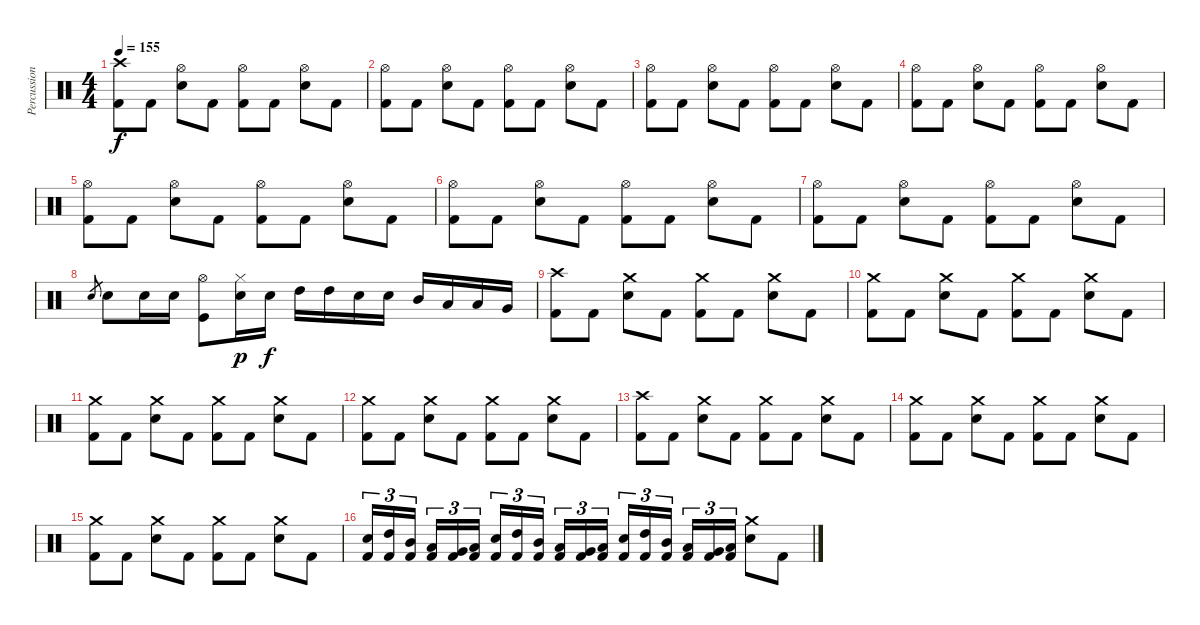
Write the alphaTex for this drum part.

\track ("Percussion" "Percussion") {instrument percussion}
\staff {score}
\articulation defaults
\ts (4 4)
\tempo 155
\clef neutral
\ks c
("Crash high (hit)" "Kick (hit) 2").8{dy f} "Kick (hit) 2".8 ("Hi-Hat (open)" "Electric Snare (hit)").8 "Kick (hit) 2".8 ("Hi-Hat (open)" "Kick (hit) 2").8 "Kick (hit) 2".8 ("Hi-Hat (open)" "Electric Snare (hit)").8 "Kick (hit) 2".8 |
("Hi-Hat (open)" "Kick (hit) 2").8 "Kick (hit) 2".8 ("Hi-Hat (open)" "Electric Snare (hit)").8 "Kick (hit) 2".8 ("Hi-Hat (open)" "Kick (hit) 2").8 "Kick (hit) 2".8 ("Hi-Hat (open)" "Electric Snare (hit)").8 "Kick (hit) 2".8 |
("Hi-Hat (open)" "Kick (hit) 2").8 "Kick (hit) 2".8 ("Hi-Hat (open)" "Electric Snare (hit)").8 "Kick (hit) 2".8 ("Hi-Hat (open)" "Kick (hit) 2").8 "Kick (hit) 2".8 ("Hi-Hat (open)" "Electric Snare (hit)").8 "Kick (hit) 2".8 |
("Hi-Hat (open)" "Kick (hit) 2").8 "Kick (hit) 2".8 ("Hi-Hat (open)" "Electric Snare (hit)").8 "Kick (hit) 2".8 ("Hi-Hat (open)" "Kick (hit) 2").8 "Kick (hit) 2".8 ("Hi-Hat (open)" "Electric Snare (hit)").8 "Kick (hit) 2".8 |
("Hi-Hat (open)" "Kick (hit) 2").8 "Kick (hit) 2".8 ("Hi-Hat (open)" "Electric Snare (hit)").8 "Kick (hit) 2".8 ("Hi-Hat (open)" "Kick (hit) 2").8 "Kick (hit) 2".8 ("Hi-Hat (open)" "Electric Snare (hit)").8 "Kick (hit) 2".8 |
("Hi-Hat (open)" "Kick (hit) 2").8 "Kick (hit) 2".8 ("Hi-Hat (open)" "Electric Snare (hit)").8 "Kick (hit) 2".8 ("Hi-Hat (open)" "Kick (hit) 2").8 "Kick (hit) 2".8 ("Hi-Hat (open)" "Electric Snare (hit)").8 "Kick (hit) 2".8 |
("Hi-Hat (open)" "Kick (hit) 2").8 "Kick (hit) 2".8 ("Hi-Hat (open)" "Electric Snare (hit)").8 "Kick (hit) 2".8 ("Hi-Hat (open)" "Kick (hit) 2").8 "Kick (hit) 2".8 ("Hi-Hat (open)" "Electric Snare (hit)").8 "Kick (hit) 2".8 |
"Electric Snare (hit)".8{gr} "Electric Snare (hit)".8 "Electric Snare (hit)".16 "Electric Snare (hit)".16 ("Hi-Hat (open)" "Kick (hit)").8 ("Hi-Hat (closed)" "Electric Snare (hit)").16{dy p} "Electric Snare (hit)".16{dy f} "High Tom (hit)".16 "High Tom (hit)".16 "Electric Snare (hit)".16 "Electric Snare (hit)".16 "Mid Tom (hit)".16 "Low Tom (hit)".16 "Low Tom (hit)".16 "Very Low Tom (hit)".16 |
("Crash high (hit)" "Kick (hit) 2").8 "Kick (hit) 2".8 ("Crash medium (hit)" "Electric Snare (hit)").8 "Kick (hit) 2".8 ("Crash medium (hit)" "Kick (hit) 2").8 "Kick (hit) 2".8 ("Crash medium (hit)" "Electric Snare (hit)").8 "Kick (hit) 2".8 |
("Crash medium (hit)" "Kick (hit) 2").8 "Kick (hit) 2".8 ("Crash medium (hit)" "Electric Snare (hit)").8 "Kick (hit) 2".8 ("Crash medium (hit)" "Kick (hit) 2").8 "Kick (hit) 2".8 ("Crash medium (hit)" "Electric Snare (hit)").8 "Kick (hit) 2".8 |
("Crash medium (hit)" "Kick (hit) 2").8 "Kick (hit) 2".8 ("Crash medium (hit)" "Electric Snare (hit)").8 "Kick (hit) 2".8 ("Crash medium (hit)" "Kick (hit) 2").8 "Kick (hit) 2".8 ("Crash medium (hit)" "Electric Snare (hit)").8 "Kick (hit) 2".8 |
("Crash medium (hit)" "Kick (hit) 2").8 "Kick (hit) 2".8 ("Crash medium (hit)" "Electric Snare (hit)").8 "Kick (hit) 2".8 ("Crash medium (hit)" "Kick (hit) 2").8 "Kick (hit) 2".8 ("Crash medium (hit)" "Electric Snare (hit)").8 "Kick (hit) 2".8 |
("Crash high (hit)" "Kick (hit) 2").8 "Kick (hit) 2".8 ("Crash medium (hit)" "Electric Snare (hit)").8 "Kick (hit) 2".8 ("Crash medium (hit)" "Kick (hit) 2").8 "Kick (hit) 2".8 ("Crash medium (hit)" "Electric Snare (hit)").8 "Kick (hit) 2".8 |
("Crash medium (hit)" "Kick (hit) 2").8 "Kick (hit) 2".8 ("Crash medium (hit)" "Electric Snare (hit)").8 "Kick (hit) 2".8 ("Crash medium (hit)" "Kick (hit) 2").8 "Kick (hit) 2".8 ("Crash medium (hit)" "Electric Snare (hit)").8 "Kick (hit) 2".8 |
("Crash medium (hit)" "Kick (hit) 2").8 "Kick (hit) 2".8 ("Crash medium (hit)" "Electric Snare (hit)").8 "Kick (hit) 2".8 ("Crash medium (hit)" "Kick (hit) 2").8 "Kick (hit) 2".8 ("Crash medium (hit)" "Electric Snare (hit)").8 "Kick (hit) 2".8 |
("Electric Snare (hit)" "Kick (hit) 2").16{tu (3 2)} ("High Tom (hit)" "Kick (hit) 2").16{tu (3 2)} ("Mid Tom (hit)" "Kick (hit) 2").16{tu (3 2)} ("Low Tom (hit)" "Kick (hit) 2").16{tu (3 2)} ("Very Low Tom (hit)" "Kick (hit) 2").16{tu (3 2)} ("Low Floor Tom (hit)" "Kick (hit) 2").16{tu (3 2)} ("Electric Snare (hit)" "Kick (hit) 2").16{tu (3 2)} ("High Tom (hit)" "Kick (hit) 2").16{tu (3 2)} ("Mid Tom (hit)" "Kick (hit) 2").16{tu (3 2)} ("Low Tom (hit)" "Kick (hit) 2").16{tu (3 2)} ("Very Low Tom (hit)" "Kick (hit) 2").16{tu (3 2)} ("Low Floor Tom (hit)" "Kick (hit) 2").16{tu (3 2)} ("Electric Snare (hit)" "Kick (hit) 2").16{tu (3 2)} ("High Tom (hit)" "Kick (hit) 2").16{tu (3 2)} ("Mid Tom (hit)" "Kick (hit) 2").16{tu (3 2)} ("Low Tom (hit)" "Kick (hit) 2").16{tu (3 2)} ("Very Low Tom (hit)" "Kick (hit) 2").16{tu (3 2)} ("Low Floor Tom (hit)" "Kick (hit) 2").16{tu (3 2)} ("Crash medium (hit)" "Electric Snare (hit)").8 "Kick (hit) 2".8
